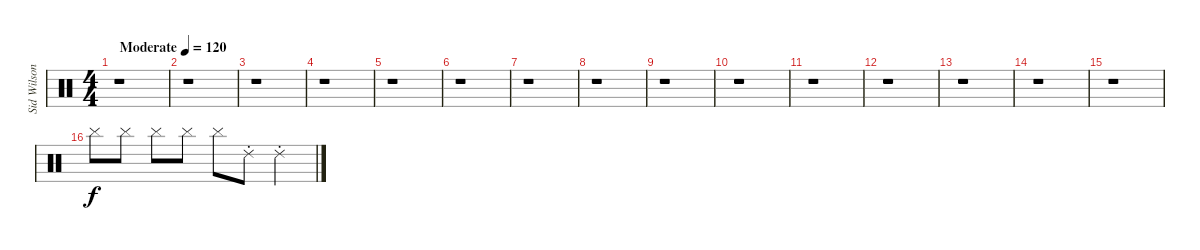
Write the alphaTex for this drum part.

\track ("Sid Wilson" "Sid Wilson") {instrument percussion}
\staff {score}
\articulation defaults
\ts (4 4)
\tempo (120 "Moderate")
\tempo 210
\tempo (120 "Moderate")
\clef neutral
\ks c
r.1{dy f} |
r.1 |
r.1 |
r.1 |
r.1 |
r.1 |
r.1 |
r.1 |
r.1 |
r.1 |
r.1 |
r.1 |
r.1 |
r.1 |
r.1 |
"Cymbal (hit)".8{volume 16} "Cymbal (hit)".8 "Cymbal (hit)".8 "Cymbal (hit)".8 "Cymbal (hit)".8 "Ride (choke) 2".8 "Ride (choke) 2".4
